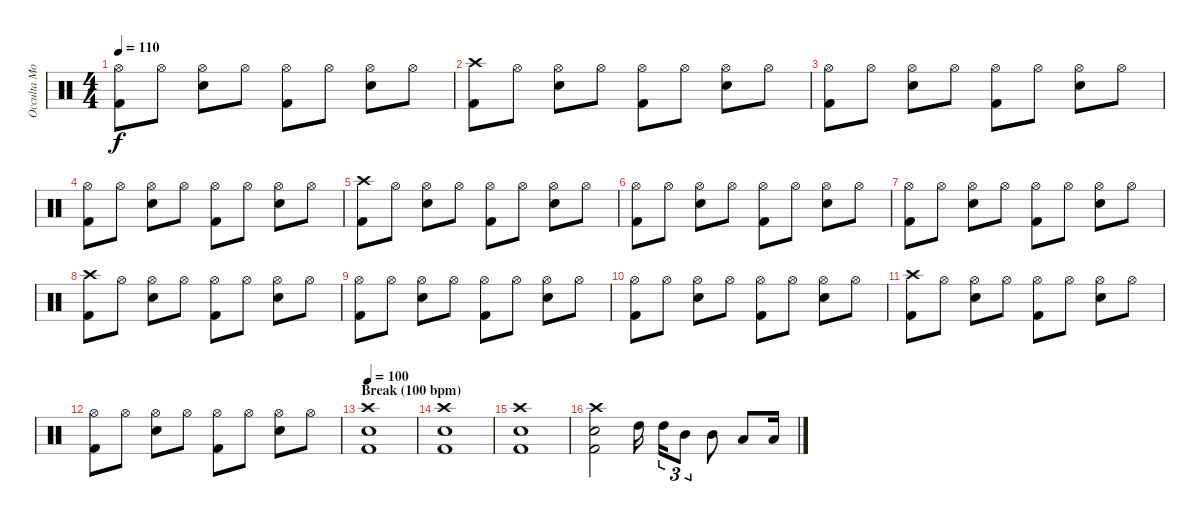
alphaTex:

\track ("Occulta Mors (Drums)" "Occulta Mo") {instrument percussion}
\staff {score}
\articulation defaults
\ts (4 4)
\tempo 110
\clef neutral
\ks c
("Hi-Hat (open)" "Kick (hit) 2").8{dy f} "Hi-Hat (open)".8 ("Hi-Hat (open)" "Snare (hit) 2").8 "Hi-Hat (open)".8 ("Hi-Hat (open)" "Kick (hit) 2").8 "Hi-Hat (open)".8 ("Hi-Hat (open)" "Snare (hit) 2").8 "Hi-Hat (open)".8 |
("Crash high (hit)" "Kick (hit) 2").8 "Hi-Hat (open)".8 ("Hi-Hat (open)" "Snare (hit) 2").8 "Hi-Hat (open)".8 ("Hi-Hat (open)" "Kick (hit) 2").8 "Hi-Hat (open)".8 ("Hi-Hat (open)" "Snare (hit) 2").8 "Hi-Hat (open)".8 |
("Hi-Hat (open)" "Kick (hit) 2").8 "Hi-Hat (open)".8 ("Hi-Hat (open)" "Snare (hit) 2").8 "Hi-Hat (open)".8 ("Hi-Hat (open)" "Kick (hit) 2").8 "Hi-Hat (open)".8 ("Hi-Hat (open)" "Snare (hit) 2").8 "Hi-Hat (open)".8 |
("Hi-Hat (open)" "Kick (hit) 2").8 "Hi-Hat (open)".8 ("Hi-Hat (open)" "Snare (hit) 2").8 "Hi-Hat (open)".8 ("Hi-Hat (open)" "Kick (hit) 2").8 "Hi-Hat (open)".8 ("Hi-Hat (open)" "Snare (hit) 2").8 "Hi-Hat (open)".8 |
("Crash high (hit)" "Kick (hit) 2").8 "Hi-Hat (open)".8 ("Hi-Hat (open)" "Snare (hit) 2").8 "Hi-Hat (open)".8 ("Hi-Hat (open)" "Kick (hit) 2").8 "Hi-Hat (open)".8 ("Hi-Hat (open)" "Snare (hit) 2").8 "Hi-Hat (open)".8 |
("Hi-Hat (open)" "Kick (hit) 2").8 "Hi-Hat (open)".8 ("Hi-Hat (open)" "Snare (hit) 2").8 "Hi-Hat (open)".8 ("Hi-Hat (open)" "Kick (hit) 2").8 "Hi-Hat (open)".8 ("Hi-Hat (open)" "Snare (hit) 2").8 "Hi-Hat (open)".8 |
("Hi-Hat (open)" "Kick (hit) 2").8 "Hi-Hat (open)".8 ("Hi-Hat (open)" "Snare (hit) 2").8 "Hi-Hat (open)".8 ("Hi-Hat (open)" "Kick (hit) 2").8 "Hi-Hat (open)".8 ("Hi-Hat (open)" "Snare (hit) 2").8 "Hi-Hat (open)".8 |
("Crash high (hit)" "Kick (hit) 2").8 "Hi-Hat (open)".8 ("Hi-Hat (open)" "Snare (hit) 2").8 "Hi-Hat (open)".8 ("Hi-Hat (open)" "Kick (hit) 2").8 "Hi-Hat (open)".8 ("Hi-Hat (open)" "Snare (hit) 2").8 "Hi-Hat (open)".8 |
("Hi-Hat (open)" "Kick (hit) 2").8 "Hi-Hat (open)".8 ("Hi-Hat (open)" "Snare (hit) 2").8 "Hi-Hat (open)".8 ("Hi-Hat (open)" "Kick (hit) 2").8 "Hi-Hat (open)".8 ("Hi-Hat (open)" "Snare (hit) 2").8 "Hi-Hat (open)".8 |
("Hi-Hat (open)" "Kick (hit) 2").8 "Hi-Hat (open)".8 ("Hi-Hat (open)" "Snare (hit) 2").8 "Hi-Hat (open)".8 ("Hi-Hat (open)" "Kick (hit) 2").8 "Hi-Hat (open)".8 ("Hi-Hat (open)" "Snare (hit) 2").8 "Hi-Hat (open)".8 |
("Crash high (hit)" "Kick (hit) 2").8 "Hi-Hat (open)".8 ("Hi-Hat (open)" "Snare (hit) 2").8 "Hi-Hat (open)".8 ("Hi-Hat (open)" "Kick (hit) 2").8 "Hi-Hat (open)".8 ("Hi-Hat (open)" "Snare (hit) 2").8 "Hi-Hat (open)".8 |
("Hi-Hat (open)" "Kick (hit) 2").8 "Hi-Hat (open)".8 ("Hi-Hat (open)" "Snare (hit) 2").8 "Hi-Hat (open)".8 ("Hi-Hat (open)" "Kick (hit) 2").8 "Hi-Hat (open)".8 ("Hi-Hat (open)" "Snare (hit) 2").8 "Hi-Hat (open)".8 |
\section ("" "Break (100 bpm)")
\tempo 100
("Crash high (hit)" "Snare (hit) 2" "Kick (hit) 2").1 |
("Crash high (hit)" "Snare (hit) 2" "Kick (hit) 2").1 |
("Crash high (hit)" "Snare (hit) 2" "Kick (hit) 2").1 |
("Crash high (hit)" "Snare (hit) 2" "Kick (hit) 2").2 "High Tom (hit)".16 "High Tom (hit)".16{tu (3 2)} "Mid Tom (hit)".8{tu (3 2)} "Mid Tom (hit)".8 "Low Tom (hit)".8 "Low Tom (hit)".16
